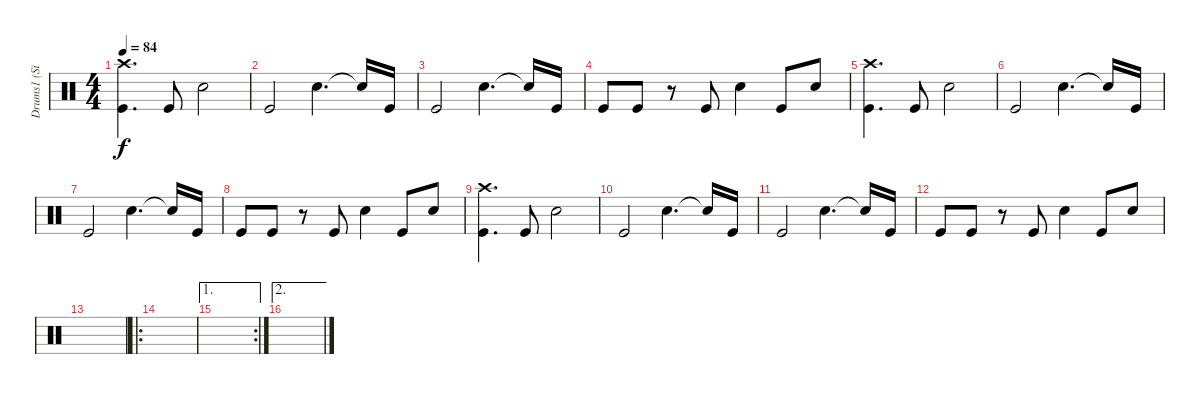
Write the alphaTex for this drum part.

\track ("Drums1 (Silas)" "Drums1 (Si") {instrument percussion}
\staff {score}
\articulation defaults
\ts (4 4)
\tempo 84
\clef neutral
\ks c
("Kick (hit)" "Crash high (hit)").4{d dy f} "Kick (hit)".8 "Snare (hit) 2".2 |
"Kick (hit)".2 "Snare (hit) 2".4{d} "Snare (hit) 2"{t}.16 "Kick (hit)".16 |
"Kick (hit)".2 "Snare (hit) 2".4{d} "Snare (hit) 2"{t}.16 "Kick (hit)".16 |
"Kick (hit)".8 "Kick (hit)".8 r.8 "Kick (hit)".8 "Snare (hit) 2".4 "Kick (hit)".8 "Snare (hit) 2".8 |
("Kick (hit)" "Crash high (hit)").4{d} "Kick (hit)".8 "Snare (hit) 2".2 |
"Kick (hit)".2 "Snare (hit) 2".4{d} "Snare (hit) 2"{t}.16 "Kick (hit)".16 |
"Kick (hit)".2 "Snare (hit) 2".4{d} "Snare (hit) 2"{t}.16 "Kick (hit)".16 |
"Kick (hit)".8 "Kick (hit)".8 r.8 "Kick (hit)".8 "Snare (hit) 2".4 "Kick (hit)".8 "Snare (hit) 2".8 |
("Kick (hit)" "Crash high (hit)").4{d} "Kick (hit)".8 "Snare (hit) 2".2 |
"Kick (hit)".2 "Snare (hit) 2".4{d} "Snare (hit) 2"{t}.16 "Kick (hit)".16 |
"Kick (hit)".2 "Snare (hit) 2".4{d} "Snare (hit) 2"{t}.16 "Kick (hit)".16 |
"Kick (hit)".8 "Kick (hit)".8 r.8 "Kick (hit)".8 "Snare (hit) 2".4 "Kick (hit)".8 "Snare (hit) 2".8 |
|
\ro
|
\ae 1
\rc 2
|
\ae 2
